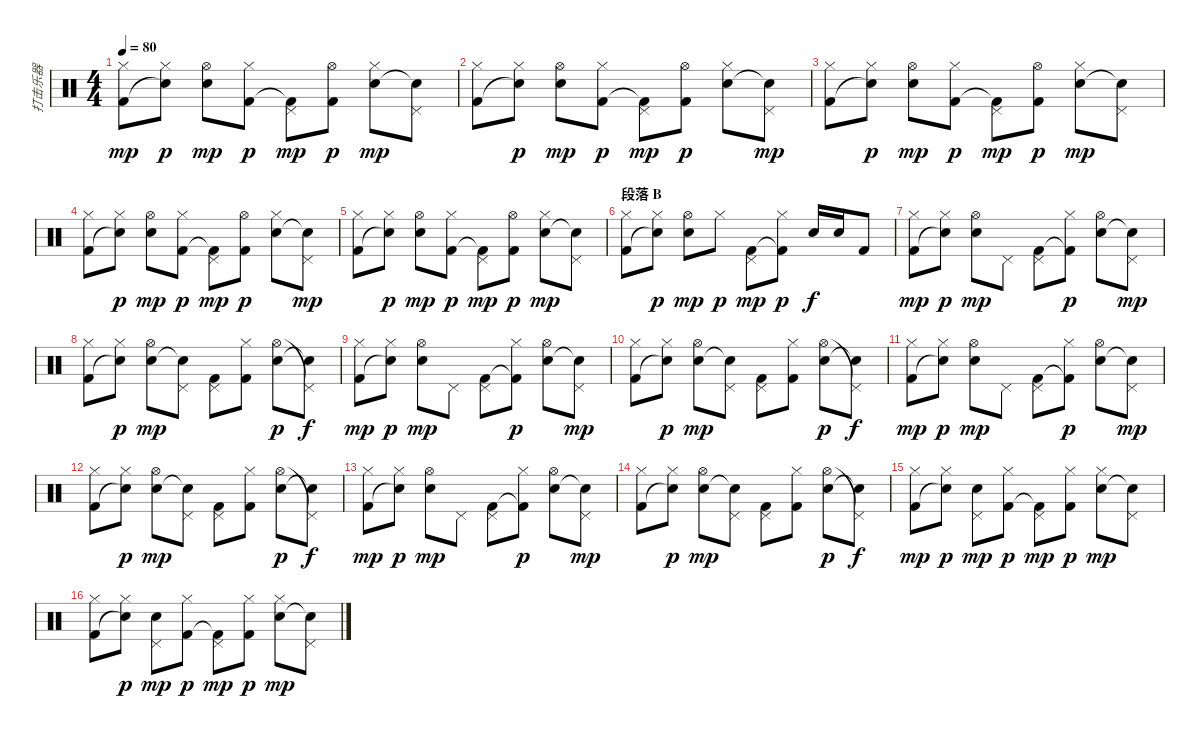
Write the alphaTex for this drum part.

\track ("打击乐器" "打击乐器") {instrument percussion}
\staff {score}
\articulation defaults
\ts (4 4)
\tempo 80
\clef neutral
\ks c
("Hi-Hat (closed)" "Kick (hit) 2").8{dy mp} ("Hi-Hat (closed)" "Snare (hit)"{t}).8{dy p} ("Hi-Hat (open)" "Electric Snare (hit)").8{dy mp} ("Hi-Hat (closed)" "Kick (hit) 2").8{dy p} ("Pedal Hi-Hat (hit)" "Kick (hit) 2"{t}).8{dy mp} ("Hi-Hat (open)" "Kick (hit) 2").8{dy p} ("Hi-Hat (closed)" "Electric Snare (hit)").8{dy mp} ("Pedal Hi-Hat (hit)" "Snare (hit)"{t}).8 |
("Hi-Hat (closed)" "Kick (hit) 2").8 ("Hi-Hat (closed)" "Snare (hit)"{t}).8{dy p} ("Hi-Hat (open)" "Electric Snare (hit)").8{dy mp} ("Hi-Hat (closed)" "Kick (hit) 2").8{dy p} ("Pedal Hi-Hat (hit)" "Kick (hit) 2"{t}).8{dy mp} ("Hi-Hat (open)" "Kick (hit) 2").8{dy p} ("Hi-Hat (closed)" "Electric Snare (hit)").8 ("Pedal Hi-Hat (hit)" "Snare (hit)"{t}).8{dy mp} |
("Hi-Hat (closed)" "Kick (hit) 2").8 ("Hi-Hat (closed)" "Snare (hit)"{t}).8{dy p} ("Hi-Hat (open)" "Electric Snare (hit)").8{dy mp} ("Hi-Hat (closed)" "Kick (hit) 2").8{dy p} ("Pedal Hi-Hat (hit)" "Kick (hit) 2"{t}).8{dy mp} ("Hi-Hat (open)" "Kick (hit) 2").8{dy p} ("Hi-Hat (closed)" "Electric Snare (hit)").8{dy mp} ("Pedal Hi-Hat (hit)" "Snare (hit)"{t}).8 |
("Hi-Hat (closed)" "Kick (hit) 2").8 ("Hi-Hat (closed)" "Snare (hit)"{t}).8{dy p} ("Hi-Hat (open)" "Electric Snare (hit)").8{dy mp} ("Hi-Hat (closed)" "Kick (hit) 2").8{dy p} ("Pedal Hi-Hat (hit)" "Kick (hit) 2"{t}).8{dy mp} ("Hi-Hat (open)" "Kick (hit) 2").8{dy p} ("Hi-Hat (closed)" "Electric Snare (hit)").8 ("Pedal Hi-Hat (hit)" "Snare (hit)"{t}).8{dy mp} |
("Hi-Hat (closed)" "Kick (hit) 2").8 ("Hi-Hat (closed)" "Snare (hit)"{t}).8{dy p} ("Hi-Hat (open)" "Electric Snare (hit)").8{dy mp} ("Hi-Hat (closed)" "Kick (hit) 2").8{dy p} ("Pedal Hi-Hat (hit)" "Kick (hit) 2"{t}).8{dy mp} ("Hi-Hat (open)" "Kick (hit) 2").8{dy p} ("Hi-Hat (closed)" "Electric Snare (hit)").8{dy mp} ("Pedal Hi-Hat (hit)" "Snare (hit)"{t}).8 |
\section ("" "段落 B")
("Hi-Hat (closed)" "Kick (hit) 2").8 ("Hi-Hat (closed)" "Snare (hit)"{t}).8{dy p} ("Hi-Hat (open)" "Electric Snare (hit)").8{dy mp} "Hi-Hat (closed)".8{dy p} ("Pedal Hi-Hat (hit)" "Kick (hit) 2").8{dy mp} ("Hi-Hat (closed)" "Kick (hit) 2"{t}).8{dy p} "Electric Snare (hit)".16{dy f} "Electric Snare (hit)".16 "Kick (hit) 2".8 |
("Hi-Hat (closed)" "Kick (hit) 2").8{dy mp} ("Hi-Hat (closed)" "Snare (hit)"{t}).8{dy p} ("Hi-Hat (open)" "Electric Snare (hit)").8{dy mp} "Pedal Hi-Hat (hit)".8 ("Pedal Hi-Hat (hit)" "Kick (hit) 2").8 ("Hi-Hat (closed)" "Kick (hit) 2"{t}).8{dy p} ("Hi-Hat (open)" "Electric Snare (hit)").8 ("Pedal Hi-Hat (hit)" "Snare (hit)"{t}).8{dy mp} |
("Hi-Hat (closed)" "Kick (hit) 2").8 ("Hi-Hat (closed)" "Snare (hit)"{t}).8{dy p} ("Hi-Hat (open)" "Electric Snare (hit)").8{dy mp} ("Pedal Hi-Hat (hit)" "Snare (hit)"{t}).8 ("Pedal Hi-Hat (hit)" "Kick (hit) 2").8 ("Hi-Hat (closed)" "Kick (hit) 2").8 ("Hi-Hat (open)" "Electric Snare (hit)").8{dy p} ("Pedal Hi-Hat (hit)"{t} "Snare (hit)"{t}).8{dy f} |
("Hi-Hat (closed)" "Kick (hit) 2").8{dy mp} ("Hi-Hat (closed)" "Snare (hit)"{t}).8{dy p} ("Hi-Hat (open)" "Electric Snare (hit)").8{dy mp} "Pedal Hi-Hat (hit)".8 ("Pedal Hi-Hat (hit)" "Kick (hit) 2").8 ("Hi-Hat (closed)" "Kick (hit) 2"{t}).8{dy p} ("Hi-Hat (open)" "Electric Snare (hit)").8 ("Pedal Hi-Hat (hit)" "Snare (hit)"{t}).8{dy mp} |
("Hi-Hat (closed)" "Kick (hit) 2").8 ("Hi-Hat (closed)" "Snare (hit)"{t}).8{dy p} ("Hi-Hat (open)" "Electric Snare (hit)").8{dy mp} ("Pedal Hi-Hat (hit)" "Snare (hit)"{t}).8 ("Pedal Hi-Hat (hit)" "Kick (hit) 2").8 ("Hi-Hat (closed)" "Kick (hit) 2").8 ("Hi-Hat (open)" "Electric Snare (hit)").8{dy p} ("Pedal Hi-Hat (hit)"{t} "Snare (hit)"{t}).8{dy f} |
("Hi-Hat (closed)" "Kick (hit) 2").8{dy mp} ("Hi-Hat (closed)" "Snare (hit)"{t}).8{dy p} ("Hi-Hat (open)" "Electric Snare (hit)").8{dy mp} "Pedal Hi-Hat (hit)".8 ("Pedal Hi-Hat (hit)" "Kick (hit) 2").8 ("Hi-Hat (closed)" "Kick (hit) 2"{t}).8{dy p} ("Hi-Hat (open)" "Electric Snare (hit)").8 ("Pedal Hi-Hat (hit)" "Snare (hit)"{t}).8{dy mp} |
("Hi-Hat (closed)" "Kick (hit) 2").8 ("Hi-Hat (closed)" "Snare (hit)"{t}).8{dy p} ("Hi-Hat (open)" "Electric Snare (hit)").8{dy mp} ("Pedal Hi-Hat (hit)" "Snare (hit)"{t}).8 ("Pedal Hi-Hat (hit)" "Kick (hit) 2").8 ("Hi-Hat (closed)" "Kick (hit) 2").8 ("Hi-Hat (open)" "Electric Snare (hit)").8{dy p} ("Pedal Hi-Hat (hit)"{t} "Snare (hit)"{t}).8{dy f} |
("Hi-Hat (closed)" "Kick (hit) 2").8{dy mp} ("Hi-Hat (closed)" "Snare (hit)"{t}).8{dy p} ("Hi-Hat (open)" "Electric Snare (hit)").8{dy mp} "Pedal Hi-Hat (hit)".8 ("Pedal Hi-Hat (hit)" "Kick (hit) 2").8 ("Hi-Hat (closed)" "Kick (hit) 2"{t}).8{dy p} ("Hi-Hat (open)" "Electric Snare (hit)").8 ("Pedal Hi-Hat (hit)" "Snare (hit)"{t}).8{dy mp} |
("Hi-Hat (closed)" "Kick (hit) 2").8 ("Hi-Hat (closed)" "Snare (hit)"{t}).8{dy p} ("Hi-Hat (open)" "Electric Snare (hit)").8{dy mp} ("Pedal Hi-Hat (hit)" "Snare (hit)"{t}).8 ("Pedal Hi-Hat (hit)" "Kick (hit) 2").8 ("Hi-Hat (closed)" "Kick (hit) 2").8 ("Hi-Hat (open)" "Electric Snare (hit)").8{dy p} ("Pedal Hi-Hat (hit)"{t} "Electric Snare (hit)"{t}).8{dy f} |
("Hi-Hat (closed)" "Kick (hit) 2").8{dy mp} ("Hi-Hat (closed)" "Snare (hit)"{t}).8{dy p} ("Pedal Hi-Hat (hit)" "Electric Snare (hit)").8{dy mp} ("Hi-Hat (closed)" "Kick (hit) 2").8{dy p} ("Pedal Hi-Hat (hit)" "Kick (hit) 2"{t}).8{dy mp} ("Hi-Hat (closed)" "Kick (hit) 2").8{dy p} ("Hi-Hat (closed)" "Electric Snare (hit)").8{dy mp} ("Pedal Hi-Hat (hit)" "Snare (hit)"{t}).8 |
("Hi-Hat (closed)" "Kick (hit) 2").8 ("Hi-Hat (closed)" "Snare (hit)"{t}).8{dy p} ("Pedal Hi-Hat (hit)" "Electric Snare (hit)").8{dy mp} ("Hi-Hat (closed)" "Kick (hit) 2").8{dy p} ("Pedal Hi-Hat (hit)" "Kick (hit) 2"{t}).8{dy mp} ("Hi-Hat (closed)" "Kick (hit) 2").8{dy p} ("Hi-Hat (closed)" "Electric Snare (hit)").8{dy mp} ("Pedal Hi-Hat (hit)" "Snare (hit)"{t}).8
